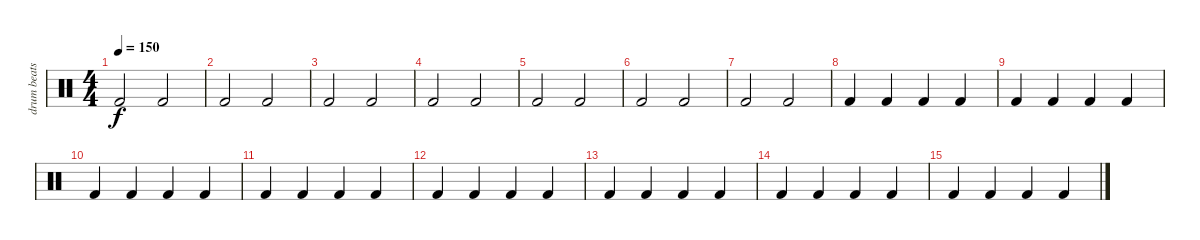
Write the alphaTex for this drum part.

\track ("drum beats" "drum beats") {instrument percussion}
\staff {score}
\articulation defaults
\ts (4 4)
\tempo 150
\clef neutral
\ks c "Kick (hit) 2".2{dy f} "Kick (hit) 2".2
|
"Kick (hit) 2".2 "Kick (hit) 2".2 |
"Kick (hit) 2".2 "Kick (hit) 2".2 |
"Kick (hit) 2".2 "Kick (hit) 2".2 |
"Kick (hit) 2".2 "Kick (hit) 2".2 |
"Kick (hit) 2".2 "Kick (hit) 2".2 |
"Kick (hit) 2".2 "Kick (hit) 2".2 |
"Kick (hit) 2".4 "Kick (hit) 2".4 "Kick (hit) 2".4 "Kick (hit) 2".4 |
"Kick (hit) 2".4 "Kick (hit) 2".4 "Kick (hit) 2".4 "Kick (hit) 2".4 |
"Kick (hit) 2".4 "Kick (hit) 2".4 "Kick (hit) 2".4 "Kick (hit) 2".4 |
"Kick (hit) 2".4 "Kick (hit) 2".4 "Kick (hit) 2".4 "Kick (hit) 2".4 |
"Kick (hit) 2".4 "Kick (hit) 2".4 "Kick (hit) 2".4 "Kick (hit) 2".4 |
"Kick (hit) 2".4 "Kick (hit) 2".4 "Kick (hit) 2".4 "Kick (hit) 2".4 |
"Kick (hit) 2".4 "Kick (hit) 2".4 "Kick (hit) 2".4 "Kick (hit) 2".4 |
"Kick (hit) 2".4 "Kick (hit) 2".4 "Kick (hit) 2".4 "Kick (hit) 2".4
